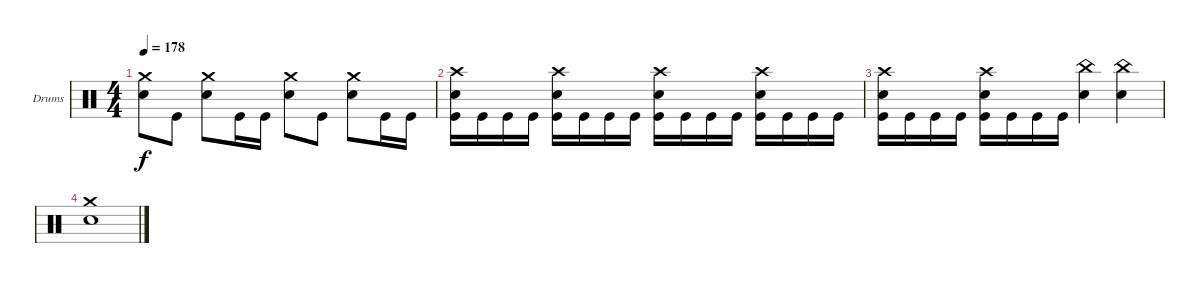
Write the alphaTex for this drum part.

\bracketExtendMode groupsimilarinstruments
\firstSystemTrackNameOrientation horizontal
\otherSystemsTrackNameOrientation horizontal
\track ("Drumkit" "Drums") {instrument percussion}
\staff {score}
\articulation defaults
\ts (4 4)
\tempo 178
\clef neutral
\ks c
("Crash medium (hit)" "Snare (hit) 2").8{dy f} "Kick (hit)".8 ("Crash medium (hit)" "Snare (hit) 2").8 "Kick (hit)".16 "Kick (hit)".16 ("Crash medium (hit)" "Snare (hit) 2").8 "Kick (hit)".8 ("Crash medium (hit)" "Snare (hit) 2").8 "Kick (hit)".16 "Kick (hit)".16 |
("Crash high (hit)" "Snare (hit) 2" "Kick (hit)").16 "Kick (hit)".16 "Kick (hit)".16 "Kick (hit)".16 ("Crash high (hit)" "Snare (hit) 2" "Kick (hit)").16 "Kick (hit)".16 "Kick (hit)".16 "Kick (hit)".16 ("Crash high (hit)" "Snare (hit) 2" "Kick (hit)").16 "Kick (hit)".16 "Kick (hit)".16 "Kick (hit)".16 ("Crash high (hit)" "Snare (hit) 2" "Kick (hit)").16 "Kick (hit)".16 "Kick (hit)".16 "Kick (hit)".16 |
("Crash high (hit)" "Snare (hit) 2" "Kick (hit)").16 "Kick (hit)".16 "Kick (hit)".16 "Kick (hit)".16 ("Crash high (hit)" "Snare (hit) 2" "Kick (hit)").16 "Kick (hit)".16 "Kick (hit)".16 "Kick (hit)".16 ("China (hit)" "Snare (hit) 2").4 ("China (hit)" "Snare (hit) 2").4 |
("Crash medium (hit)" "Snare (hit) 2").1
